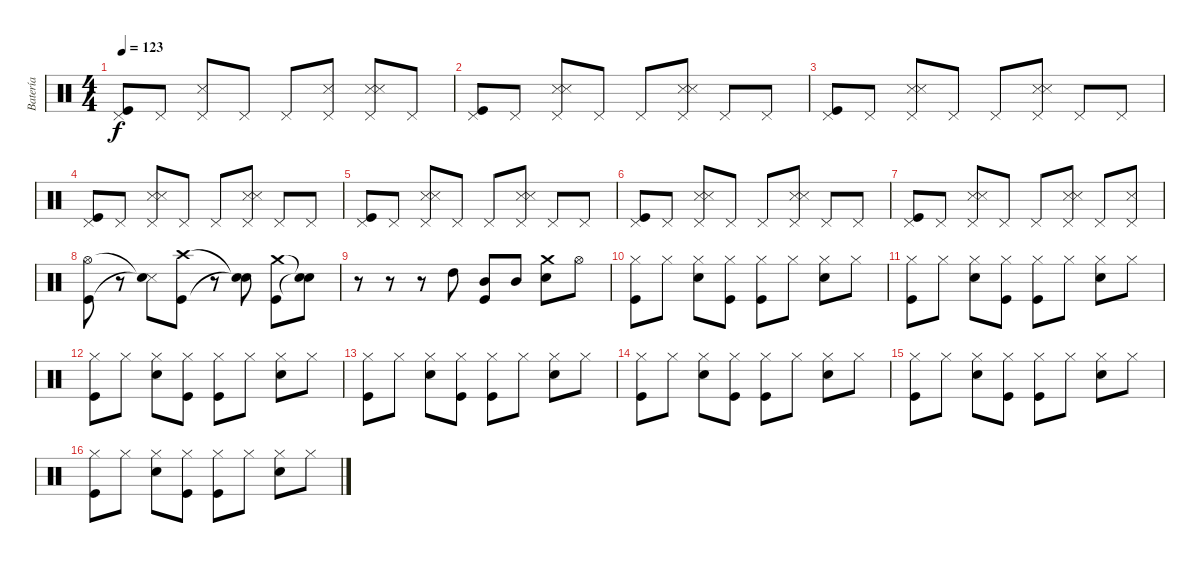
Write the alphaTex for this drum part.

\track ("Batería" "Batería") {instrument percussion}
\staff {score}
\articulation defaults
\ts (4 4)
\tempo 123
\clef neutral
\ks c
("Pedal Hi-Hat (hit)" "Kick (hit)").8{dy f} "Pedal Hi-Hat (hit)".8 ("Pedal Hi-Hat (hit)" "Snare (side stick) 3").8 "Pedal Hi-Hat (hit)".8 "Pedal Hi-Hat (hit)".8 ("Pedal Hi-Hat (hit)" "Snare (side stick) 3").8 ("Pedal Hi-Hat (hit)" "Snare (side stick) 3" "Snare (side stick) 3").8 "Pedal Hi-Hat (hit)".8 |
("Pedal Hi-Hat (hit)" "Kick (hit)").8 "Pedal Hi-Hat (hit)".8 ("Pedal Hi-Hat (hit)" "Snare (side stick) 3" "Snare (side stick) 3").8 "Pedal Hi-Hat (hit)".8 "Pedal Hi-Hat (hit)".8 ("Pedal Hi-Hat (hit)" "Snare (side stick) 3" "Snare (side stick) 3").8 "Pedal Hi-Hat (hit)".8 "Pedal Hi-Hat (hit)".8 |
("Pedal Hi-Hat (hit)" "Kick (hit)").8 "Pedal Hi-Hat (hit)".8 ("Pedal Hi-Hat (hit)" "Snare (side stick) 3" "Snare (side stick) 3").8 "Pedal Hi-Hat (hit)".8 "Pedal Hi-Hat (hit)".8 ("Pedal Hi-Hat (hit)" "Snare (side stick) 3" "Snare (side stick) 3").8 "Pedal Hi-Hat (hit)".8 "Pedal Hi-Hat (hit)".8 |
("Pedal Hi-Hat (hit)" "Kick (hit)").8 "Pedal Hi-Hat (hit)".8 ("Pedal Hi-Hat (hit)" "Snare (side stick) 3" "Snare (side stick) 3").8 "Pedal Hi-Hat (hit)".8 "Pedal Hi-Hat (hit)".8 ("Pedal Hi-Hat (hit)" "Snare (side stick) 3" "Snare (side stick) 3").8 "Pedal Hi-Hat (hit)".8 "Pedal Hi-Hat (hit)".8 |
("Pedal Hi-Hat (hit)" "Kick (hit)").8 "Pedal Hi-Hat (hit)".8 ("Pedal Hi-Hat (hit)" "Snare (side stick) 3" "Snare (side stick) 3").8 "Pedal Hi-Hat (hit)".8 "Pedal Hi-Hat (hit)".8 ("Pedal Hi-Hat (hit)" "Snare (side stick) 3" "Snare (side stick) 3").8 "Pedal Hi-Hat (hit)".8 "Pedal Hi-Hat (hit)".8 |
("Pedal Hi-Hat (hit)" "Kick (hit)").8 "Pedal Hi-Hat (hit)".8 ("Pedal Hi-Hat (hit)" "Snare (side stick) 3" "Snare (side stick) 3").8 "Pedal Hi-Hat (hit)".8 "Pedal Hi-Hat (hit)".8 ("Pedal Hi-Hat (hit)" "Snare (side stick) 3" "Snare (side stick) 3").8 "Pedal Hi-Hat (hit)".8 "Pedal Hi-Hat (hit)".8 |
("Pedal Hi-Hat (hit)" "Kick (hit)").8 "Pedal Hi-Hat (hit)".8 ("Pedal Hi-Hat (hit)" "Snare (side stick) 3" "Snare (side stick) 3").8 "Pedal Hi-Hat (hit)".8 "Pedal Hi-Hat (hit)".8 ("Pedal Hi-Hat (hit)" "Snare (side stick) 3" "Snare (side stick) 3").8 "Pedal Hi-Hat (hit)".8 ("Pedal Hi-Hat (hit)" "Snare (side stick) 3").8 |
("Hi-Hat (open)" "Kick (hit)").8 r.8 ("Snare (side stick) 3"{t} "Snare (hit)"{t}).8 ("Crash high (hit)" "Kick (hit)").8 r.8 ("Snare (hit)"{t} "Snare (hit)"{t}).8 ("Crash medium (hit)" "Kick (hit)").8 ("Snare (hit)"{t} "Snare (hit)"{t}).8 |
r.8 r.8 r.8 "High Tom (hit)".8 ("Mid Tom (hit)" "Kick (hit)").8 "Mid Tom (hit)".8 ("Crash medium (hit)" "Snare (hit) 2").8 "Hi-Hat (open)".8 |
("Hi-Hat (closed)" "Kick (hit)").8 "Hi-Hat (closed)".8 ("Hi-Hat (closed)" "Snare (hit) 2").8 ("Hi-Hat (closed)" "Kick (hit)").8 ("Hi-Hat (closed)" "Kick (hit)").8 "Hi-Hat (closed)".8 ("Hi-Hat (closed)" "Snare (hit) 2").8 "Hi-Hat (closed)".8 |
("Hi-Hat (closed)" "Kick (hit)").8 "Hi-Hat (closed)".8 ("Hi-Hat (closed)" "Snare (hit) 2").8 ("Hi-Hat (closed)" "Kick (hit)").8 ("Hi-Hat (closed)" "Kick (hit)").8 "Hi-Hat (closed)".8 ("Hi-Hat (closed)" "Snare (hit) 2").8 "Hi-Hat (closed)".8 |
("Hi-Hat (closed)" "Kick (hit)").8 "Hi-Hat (closed)".8 ("Hi-Hat (closed)" "Snare (hit) 2").8 ("Hi-Hat (closed)" "Kick (hit)").8 ("Hi-Hat (closed)" "Kick (hit)").8 "Hi-Hat (closed)".8 ("Hi-Hat (closed)" "Snare (hit) 2").8 "Hi-Hat (closed)".8 |
("Hi-Hat (closed)" "Kick (hit)").8 "Hi-Hat (closed)".8 ("Hi-Hat (closed)" "Snare (hit) 2").8 ("Hi-Hat (closed)" "Kick (hit)").8 ("Hi-Hat (closed)" "Kick (hit)").8 "Hi-Hat (closed)".8 ("Hi-Hat (closed)" "Snare (hit) 2").8 "Hi-Hat (closed)".8 |
("Hi-Hat (closed)" "Kick (hit)").8 "Hi-Hat (closed)".8 ("Hi-Hat (closed)" "Snare (hit) 2").8 ("Hi-Hat (closed)" "Kick (hit)").8 ("Hi-Hat (closed)" "Kick (hit)").8 "Hi-Hat (closed)".8 ("Hi-Hat (closed)" "Snare (hit) 2").8 "Hi-Hat (closed)".8 |
("Hi-Hat (closed)" "Kick (hit)").8 "Hi-Hat (closed)".8 ("Hi-Hat (closed)" "Snare (hit) 2").8 ("Hi-Hat (closed)" "Kick (hit)").8 ("Hi-Hat (closed)" "Kick (hit)").8 "Hi-Hat (closed)".8 ("Hi-Hat (closed)" "Snare (hit) 2").8 "Hi-Hat (closed)".8 |
("Hi-Hat (closed)" "Kick (hit)").8 "Hi-Hat (closed)".8 ("Hi-Hat (closed)" "Snare (hit) 2").8 ("Hi-Hat (closed)" "Kick (hit)").8 ("Hi-Hat (closed)" "Kick (hit)").8 "Hi-Hat (closed)".8 ("Hi-Hat (closed)" "Snare (hit) 2").8 "Hi-Hat (closed)".8
